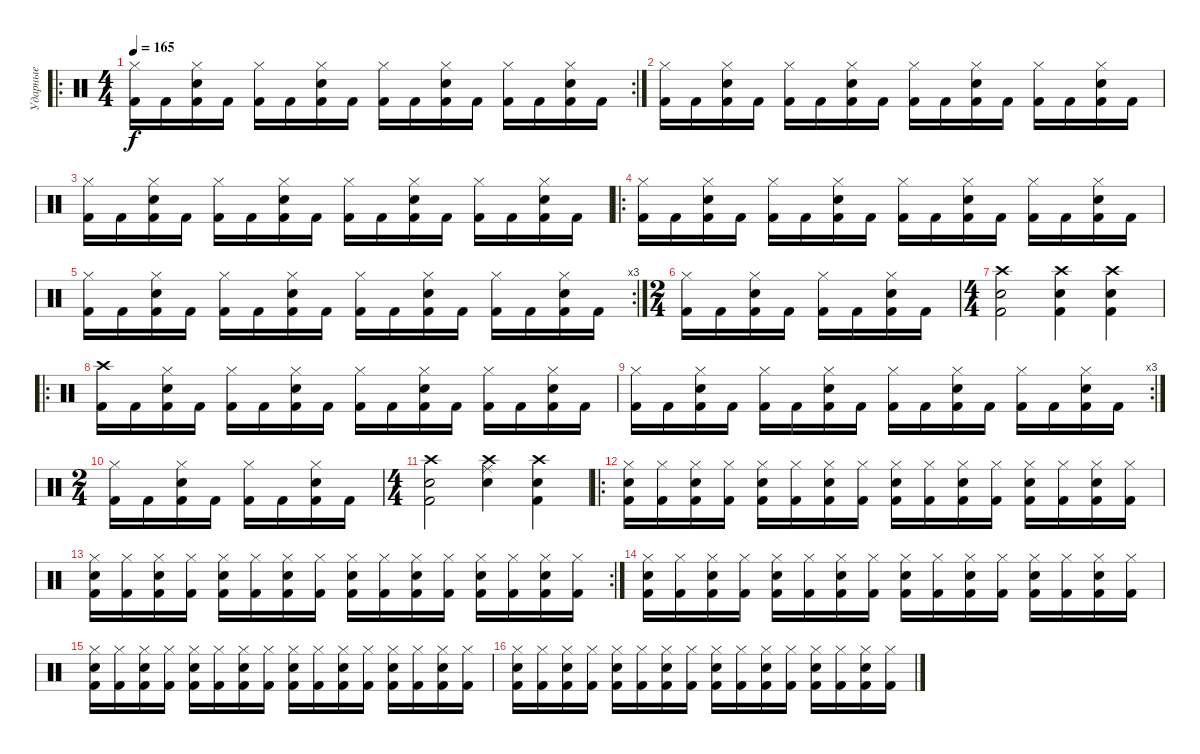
\track ("Ударные" "Ударные") {instrument percussion}
\staff
\articulation defaults
\ro
\rc 2
\ts (4 4)
\tempo 165
\clef neutral
\ks c
("Kick (hit) 2" "Hi-Hat (closed)").16{dy f} "Kick (hit) 2".16 ("Kick (hit) 2" "Snare (hit) 2" "Hi-Hat (closed)").16 "Kick (hit) 2".16 ("Kick (hit) 2" "Hi-Hat (closed)").16 "Kick (hit) 2".16 ("Kick (hit) 2" "Snare (hit) 2" "Hi-Hat (closed)").16 "Kick (hit) 2".16 ("Kick (hit) 2" "Hi-Hat (closed)").16 "Kick (hit) 2".16 ("Kick (hit) 2" "Snare (hit) 2" "Hi-Hat (closed)").16 "Kick (hit) 2".16 ("Kick (hit) 2" "Hi-Hat (closed)").16 "Kick (hit) 2".16 ("Kick (hit) 2" "Snare (hit) 2" "Hi-Hat (closed)").16 "Kick (hit) 2".16 |
("Kick (hit) 2" "Hi-Hat (closed)").16 "Kick (hit) 2".16 ("Kick (hit) 2" "Snare (hit) 2" "Hi-Hat (closed)").16 "Kick (hit) 2".16 ("Kick (hit) 2" "Hi-Hat (closed)").16 "Kick (hit) 2".16 ("Kick (hit) 2" "Snare (hit) 2" "Hi-Hat (closed)").16 "Kick (hit) 2".16 ("Kick (hit) 2" "Hi-Hat (closed)").16 "Kick (hit) 2".16 ("Kick (hit) 2" "Snare (hit) 2" "Hi-Hat (closed)").16 "Kick (hit) 2".16 ("Kick (hit) 2" "Hi-Hat (closed)").16 "Kick (hit) 2".16 ("Kick (hit) 2" "Snare (hit) 2" "Hi-Hat (closed)").16 "Kick (hit) 2".16 |
("Kick (hit) 2" "Hi-Hat (closed)").16 "Kick (hit) 2".16 ("Kick (hit) 2" "Snare (hit) 2" "Hi-Hat (closed)").16 "Kick (hit) 2".16 ("Kick (hit) 2" "Hi-Hat (closed)").16 "Kick (hit) 2".16 ("Kick (hit) 2" "Snare (hit) 2" "Hi-Hat (closed)").16 "Kick (hit) 2".16 ("Kick (hit) 2" "Hi-Hat (closed)").16 "Kick (hit) 2".16 ("Kick (hit) 2" "Snare (hit) 2" "Hi-Hat (closed)").16 "Kick (hit) 2".16 ("Kick (hit) 2" "Hi-Hat (closed)").16 "Kick (hit) 2".16 ("Kick (hit) 2" "Snare (hit) 2" "Hi-Hat (closed)").16 "Kick (hit) 2".16 |
\ro
("Kick (hit) 2" "Hi-Hat (closed)").16 "Kick (hit) 2".16 ("Kick (hit) 2" "Snare (hit) 2" "Hi-Hat (closed)").16 "Kick (hit) 2".16 ("Kick (hit) 2" "Hi-Hat (closed)").16 "Kick (hit) 2".16 ("Kick (hit) 2" "Snare (hit) 2" "Hi-Hat (closed)").16 "Kick (hit) 2".16 ("Kick (hit) 2" "Hi-Hat (closed)").16 "Kick (hit) 2".16 ("Kick (hit) 2" "Snare (hit) 2" "Hi-Hat (closed)").16 "Kick (hit) 2".16 ("Kick (hit) 2" "Hi-Hat (closed)").16 "Kick (hit) 2".16 ("Kick (hit) 2" "Snare (hit) 2" "Hi-Hat (closed)").16 "Kick (hit) 2".16 |
\rc 3
("Kick (hit) 2" "Hi-Hat (closed)").16 "Kick (hit) 2".16 ("Kick (hit) 2" "Snare (hit) 2" "Hi-Hat (closed)").16 "Kick (hit) 2".16 ("Kick (hit) 2" "Hi-Hat (closed)").16 "Kick (hit) 2".16 ("Kick (hit) 2" "Snare (hit) 2" "Hi-Hat (closed)").16 "Kick (hit) 2".16 ("Kick (hit) 2" "Hi-Hat (closed)").16 "Kick (hit) 2".16 ("Kick (hit) 2" "Snare (hit) 2" "Hi-Hat (closed)").16 "Kick (hit) 2".16 ("Kick (hit) 2" "Hi-Hat (closed)").16 "Kick (hit) 2".16 ("Kick (hit) 2" "Snare (hit) 2" "Hi-Hat (closed)").16 "Kick (hit) 2".16 |
\ts (2 4)
("Kick (hit) 2" "Hi-Hat (closed)").16 "Kick (hit) 2".16 ("Kick (hit) 2" "Snare (hit) 2" "Hi-Hat (closed)").16 "Kick (hit) 2".16 ("Kick (hit) 2" "Hi-Hat (closed)").16 "Kick (hit) 2".16 ("Kick (hit) 2" "Snare (hit) 2" "Hi-Hat (closed)").16 "Kick (hit) 2".16 |
\ts (4 4)
("Kick (hit) 2" "Snare (hit) 2" "Crash high (hit)").2 ("Kick (hit) 2" "Snare (hit) 2" "Crash high (hit)").4 ("Kick (hit) 2" "Snare (hit) 2" "Crash high (hit)").4 |
\ro
("Kick (hit) 2" "Crash high (hit)").16 "Kick (hit) 2".16 ("Kick (hit) 2" "Snare (hit) 2" "Hi-Hat (closed)").16 "Kick (hit) 2".16 ("Kick (hit) 2" "Hi-Hat (closed)").16 "Kick (hit) 2".16 ("Kick (hit) 2" "Snare (hit) 2" "Hi-Hat (closed)").16 "Kick (hit) 2".16 ("Kick (hit) 2" "Hi-Hat (closed)").16 "Kick (hit) 2".16 ("Kick (hit) 2" "Snare (hit) 2" "Hi-Hat (closed)").16 "Kick (hit) 2".16 ("Kick (hit) 2" "Hi-Hat (closed)").16 "Kick (hit) 2".16 ("Kick (hit) 2" "Snare (hit) 2" "Hi-Hat (closed)").16 "Kick (hit) 2".16 |
\rc 3
("Kick (hit) 2" "Hi-Hat (closed)").16 "Kick (hit) 2".16 ("Kick (hit) 2" "Snare (hit) 2" "Hi-Hat (closed)").16 "Kick (hit) 2".16 ("Kick (hit) 2" "Hi-Hat (closed)").16 "Kick (hit) 2".16 ("Kick (hit) 2" "Snare (hit) 2" "Hi-Hat (closed)").16 "Kick (hit) 2".16 ("Kick (hit) 2" "Hi-Hat (closed)").16 "Kick (hit) 2".16 ("Kick (hit) 2" "Snare (hit) 2" "Hi-Hat (closed)").16 "Kick (hit) 2".16 ("Kick (hit) 2" "Hi-Hat (closed)").16 "Kick (hit) 2".16 ("Kick (hit) 2" "Snare (hit) 2" "Hi-Hat (closed)").16 "Kick (hit) 2".16 |
\ts (2 4)
("Kick (hit) 2" "Hi-Hat (closed)").16 "Kick (hit) 2".16 ("Kick (hit) 2" "Snare (hit) 2" "Hi-Hat (closed)").16 "Kick (hit) 2".16 ("Kick (hit) 2" "Hi-Hat (closed)").16 "Kick (hit) 2".16 ("Kick (hit) 2" "Snare (hit) 2" "Hi-Hat (closed)").16 "Kick (hit) 2".16 |
\ts (4 4)
("Kick (hit) 2" "Snare (hit) 2" "Crash high (hit)").2 ("Ride (middle)" "Snare (hit) 2" "Crash high (hit)").4 ("Kick (hit) 2" "Snare (hit) 2" "Crash high (hit)").4 |
\ro
("Kick (hit) 2" "Snare (hit) 2" "Hi-Hat (closed)").16 ("Kick (hit) 2" "Hi-Hat (closed)").16 ("Kick (hit) 2" "Snare (hit) 2" "Hi-Hat (closed)").16 ("Kick (hit) 2" "Hi-Hat (closed)").16 ("Kick (hit) 2" "Snare (hit) 2" "Hi-Hat (closed)").16 ("Kick (hit) 2" "Hi-Hat (closed)").16 ("Kick (hit) 2" "Snare (hit) 2" "Hi-Hat (closed)").16 ("Kick (hit) 2" "Hi-Hat (closed)").16 ("Kick (hit) 2" "Snare (hit) 2" "Hi-Hat (closed)").16 ("Kick (hit) 2" "Hi-Hat (closed)").16 ("Kick (hit) 2" "Snare (hit) 2" "Hi-Hat (closed)").16 ("Kick (hit) 2" "Hi-Hat (closed)").16 ("Kick (hit) 2" "Snare (hit) 2" "Hi-Hat (closed)").16 ("Kick (hit) 2" "Hi-Hat (closed)").16 ("Kick (hit) 2" "Snare (hit) 2" "Hi-Hat (closed)").16 ("Kick (hit) 2" "Hi-Hat (closed)").16 |
\rc 2
("Kick (hit) 2" "Snare (hit) 2" "Hi-Hat (closed)").16 ("Kick (hit) 2" "Hi-Hat (closed)").16 ("Kick (hit) 2" "Snare (hit) 2" "Hi-Hat (closed)").16 ("Kick (hit) 2" "Hi-Hat (closed)").16 ("Kick (hit) 2" "Snare (hit) 2" "Hi-Hat (closed)").16 ("Kick (hit) 2" "Hi-Hat (closed)").16 ("Kick (hit) 2" "Snare (hit) 2" "Hi-Hat (closed)").16 ("Kick (hit) 2" "Hi-Hat (closed)").16 ("Kick (hit) 2" "Snare (hit) 2" "Hi-Hat (closed)").16 ("Kick (hit) 2" "Hi-Hat (closed)").16 ("Kick (hit) 2" "Snare (hit) 2" "Hi-Hat (closed)").16 ("Kick (hit) 2" "Hi-Hat (closed)").16 ("Kick (hit) 2" "Snare (hit) 2" "Hi-Hat (closed)").16 ("Kick (hit) 2" "Hi-Hat (closed)").16 ("Kick (hit) 2" "Snare (hit) 2" "Hi-Hat (closed)").16 ("Kick (hit) 2" "Hi-Hat (closed)").16 |
("Kick (hit) 2" "Snare (hit) 2" "Hi-Hat (closed)").16 ("Kick (hit) 2" "Hi-Hat (closed)").16 ("Kick (hit) 2" "Snare (hit) 2" "Hi-Hat (closed)").16 ("Kick (hit) 2" "Hi-Hat (closed)").16 ("Kick (hit) 2" "Snare (hit) 2" "Hi-Hat (closed)").16 ("Kick (hit) 2" "Hi-Hat (closed)").16 ("Kick (hit) 2" "Snare (hit) 2" "Hi-Hat (closed)").16 ("Kick (hit) 2" "Hi-Hat (closed)").16 ("Kick (hit) 2" "Snare (hit) 2" "Hi-Hat (closed)").16 ("Kick (hit) 2" "Hi-Hat (closed)").16 ("Kick (hit) 2" "Snare (hit) 2" "Hi-Hat (closed)").16 ("Kick (hit) 2" "Hi-Hat (closed)").16 ("Kick (hit) 2" "Snare (hit) 2" "Hi-Hat (closed)").16 ("Kick (hit) 2" "Hi-Hat (closed)").16 ("Kick (hit) 2" "Snare (hit) 2" "Hi-Hat (closed)").16 ("Kick (hit) 2" "Hi-Hat (closed)").16 |
("Kick (hit) 2" "Snare (hit) 2" "Hi-Hat (closed)").16 ("Kick (hit) 2" "Hi-Hat (closed)").16 ("Kick (hit) 2" "Snare (hit) 2" "Hi-Hat (closed)").16 ("Kick (hit) 2" "Hi-Hat (closed)").16 ("Kick (hit) 2" "Snare (hit) 2" "Hi-Hat (closed)").16 ("Kick (hit) 2" "Hi-Hat (closed)").16 ("Kick (hit) 2" "Snare (hit) 2" "Hi-Hat (closed)").16 ("Kick (hit) 2" "Hi-Hat (closed)").16 ("Kick (hit) 2" "Snare (hit) 2" "Hi-Hat (closed)").16 ("Kick (hit) 2" "Hi-Hat (closed)").16 ("Kick (hit) 2" "Snare (hit) 2" "Hi-Hat (closed)").16 ("Kick (hit) 2" "Hi-Hat (closed)").16 ("Kick (hit) 2" "Snare (hit) 2" "Hi-Hat (closed)").16 ("Kick (hit) 2" "Hi-Hat (closed)").16 ("Kick (hit) 2" "Snare (hit) 2" "Hi-Hat (closed)").16 ("Kick (hit) 2" "Hi-Hat (closed)").16 |
("Kick (hit) 2" "Snare (hit) 2" "Hi-Hat (closed)").16 ("Kick (hit) 2" "Hi-Hat (closed)").16 ("Kick (hit) 2" "Snare (hit) 2" "Hi-Hat (closed)").16 ("Kick (hit) 2" "Hi-Hat (closed)").16 ("Kick (hit) 2" "Snare (hit) 2" "Hi-Hat (closed)").16 ("Kick (hit) 2" "Hi-Hat (closed)").16 ("Kick (hit) 2" "Snare (hit) 2" "Hi-Hat (closed)").16 ("Kick (hit) 2" "Hi-Hat (closed)").16 ("Kick (hit) 2" "Snare (hit) 2" "Hi-Hat (closed)").16 ("Kick (hit) 2" "Hi-Hat (closed)").16 ("Kick (hit) 2" "Snare (hit) 2" "Hi-Hat (closed)").16 ("Kick (hit) 2" "Hi-Hat (closed)").16 ("Kick (hit) 2" "Snare (hit) 2" "Hi-Hat (closed)").16 ("Kick (hit) 2" "Hi-Hat (closed)").16 ("Kick (hit) 2" "Snare (hit) 2" "Hi-Hat (closed)").16 ("Kick (hit) 2" "Hi-Hat (closed)").16
